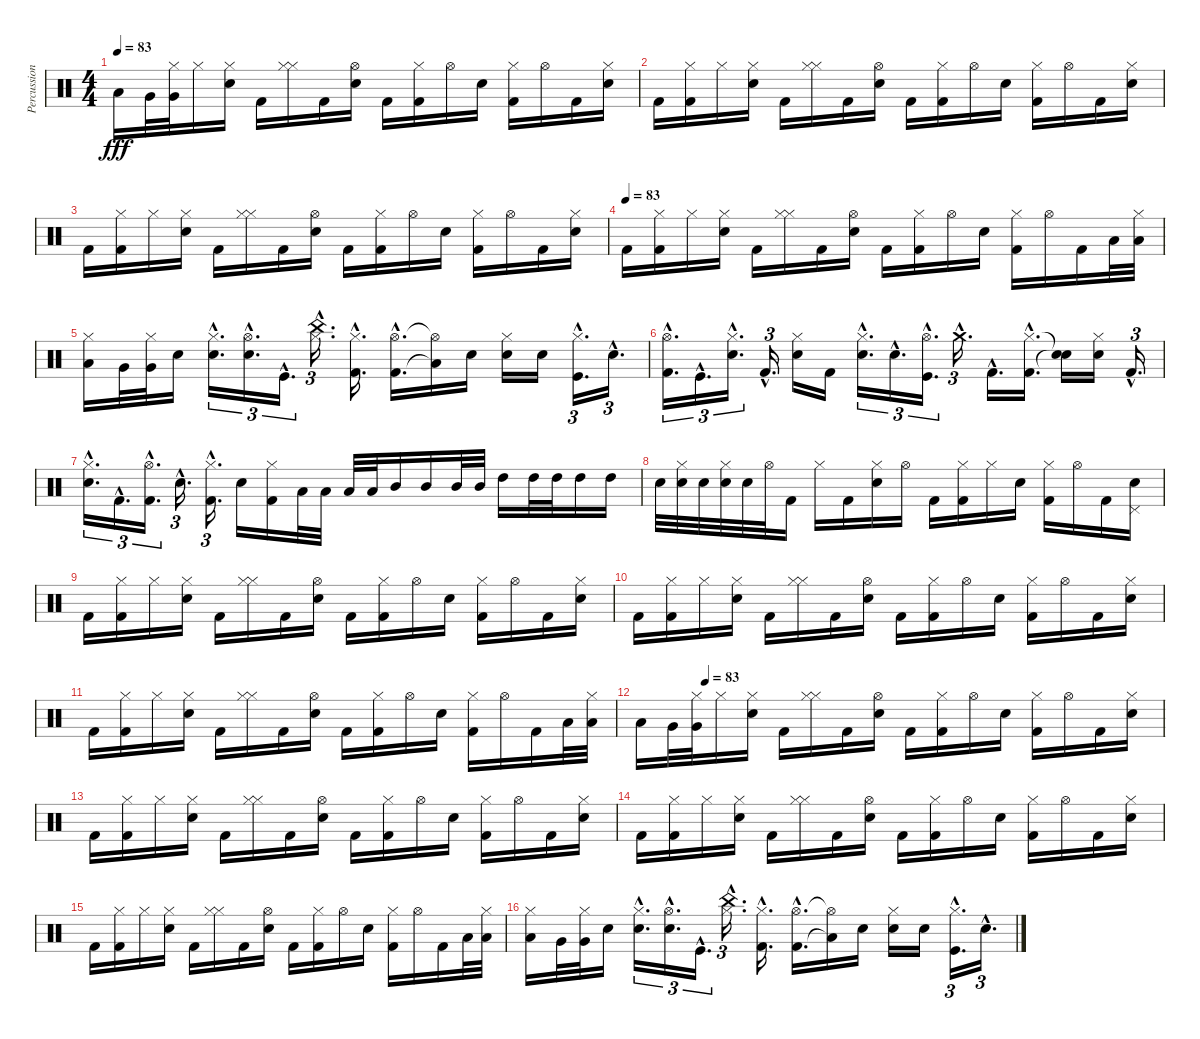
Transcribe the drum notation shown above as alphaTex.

\track ("Percussion" "Percussion") {instrument percussion}
\staff {score}
\articulation defaults
\ts (4 4)
\tempo 83
\clef neutral
\ks c "Low Floor Tom (hit)".16{dy fff} "Very Low Tom (hit)".32
("Hi-Hat (closed)" "Very Low Tom (hit)").32 "Hi-Hat (closed)".16 ("Hi-Hat (closed)" "Snare (hit) 2").16 "Kick (hit) 2".16 ("Hi-Hat (closed)" "Hi-Hat (closed)").16 "Kick (hit) 2".16 ("Hi-Hat (open)" "Snare (hit) 2").16 "Kick (hit) 2".16 ("Hi-Hat (closed)" "Kick (hit) 2").16 "Hi-Hat (open)".16 "Snare (hit) 2".16 ("Hi-Hat (closed)" "Kick (hit) 2").16 "Hi-Hat (open)".16 "Kick (hit) 2".16 ("Hi-Hat (closed)" "Snare (hit) 2").16 |
"Kick (hit) 2".16 ("Hi-Hat (closed)" "Kick (hit) 2").16 "Hi-Hat (closed)".16 ("Hi-Hat (closed)" "Snare (hit) 2").16 "Kick (hit) 2".16 ("Hi-Hat (closed)" "Hi-Hat (closed)").16 "Kick (hit) 2".16 ("Hi-Hat (open)" "Snare (hit) 2").16 "Kick (hit) 2".16 ("Hi-Hat (closed)" "Kick (hit) 2").16 "Hi-Hat (open)".16 "Snare (hit) 2".16 ("Hi-Hat (closed)" "Kick (hit) 2").16 "Hi-Hat (open)".16 "Kick (hit) 2".16 ("Hi-Hat (closed)" "Snare (hit) 2").16 |
"Kick (hit) 2".16 ("Hi-Hat (closed)" "Kick (hit) 2").16 "Hi-Hat (closed)".16 ("Hi-Hat (closed)" "Snare (hit) 2").16 "Kick (hit) 2".16 ("Hi-Hat (closed)" "Hi-Hat (closed)").16 "Kick (hit) 2".16 ("Hi-Hat (open)" "Snare (hit) 2").16 "Kick (hit) 2".16 ("Hi-Hat (closed)" "Kick (hit) 2").16 "Hi-Hat (open)".16 "Snare (hit) 2".16 ("Hi-Hat (closed)" "Kick (hit) 2").16 "Hi-Hat (open)".16 "Kick (hit) 2".16 ("Hi-Hat (closed)" "Snare (hit) 2").16 |
\tempo (83)
"Kick (hit) 2".16 ("Hi-Hat (closed)" "Kick (hit) 2").16 "Hi-Hat (closed)".16 ("Hi-Hat (closed)" "Snare (hit) 2").16 "Kick (hit) 2".16 ("Hi-Hat (closed)" "Hi-Hat (closed)").16 "Kick (hit) 2".16 ("Hi-Hat (open)" "Snare (hit) 2").16 "Kick (hit) 2".16 ("Hi-Hat (closed)" "Kick (hit) 2").16 "Hi-Hat (open)".16 "Snare (hit) 2".16 ("Hi-Hat (closed)" "Kick (hit) 2").16 "Hi-Hat (open)".16 "Kick (hit) 2".16 "Low Tom (hit)".32 ("Hi-Hat (closed)" "Low Tom (hit)").32 |
("Hi-Hat (closed)" "Low Floor Tom (hit)").16 "Very Low Tom (hit)".32 ("Hi-Hat (closed)" "Very Low Tom (hit)").32 "Snare (hit) 2".16 ("Hi-Hat (closed)"{hac} "Snare (hit) 2"{hac}).16{d tu (3 2)} ("Hi-Hat (open)"{hac} "Snare (hit) 2"{hac}).16{d tu (3 2)} "Kick (hit)"{hac}.16{d tu (3 2)} ("Hi-Hat (closed)"{hac} "China (hit)"{hac}).16{d tu (3 2)} ("Hi-Hat (closed)"{hac} "Kick (hit) 2"{hac}).16{d} ("Hi-Hat (open)"{hac} "Kick (hit) 2"{hac}).16{d} ("Hi-Hat (open)"{t} "Low Tom (hit)"{t}).16 "Snare (hit) 2".16 ("Hi-Hat (closed)" "Snare (hit) 2").16 "Snare (hit) 2".16 ("Hi-Hat (closed)"{hac} "Kick (hit)"{hac}).16{d tu (3 2)} "Snare (hit) 2"{hac}.16{d tu (3 2)} |
("Hi-Hat (open)"{hac} "Kick (hit) 2"{hac}).16{d tu (3 2)} "Kick (hit)"{hac}.16{d tu (3 2)} ("Hi-Hat (closed)"{hac} "Snare (hit) 2"{hac}).16{d tu (3 2)} "Kick (hit) 2"{hac}.16{d tu (3 2)} ("Hi-Hat (closed)" "Snare (hit) 2").16 "Kick (hit) 2".16 ("Hi-Hat (closed)"{hac} "Snare (hit) 2"{hac}).16{d tu (3 2)} "Snare (hit) 2"{hac}.16{d tu (3 2)} ("Hi-Hat (open)"{hac} "Kick (hit)"{hac}).16{d tu (3 2)} "Crash medium (hit)"{hac}.16{d tu (3 2)} "Kick (hit) 2"{hac}.16{d} ("Hi-Hat (closed)"{hac} "Kick (hit) 2"{hac}).16{d} ("Snare (hit)"{t} "Snare (hit)"{t}).16 ("Hi-Hat (closed)" "Snare (hit) 2").16 "Kick (hit) 2"{hac}.16{d tu (3 2)} |
("Hi-Hat (closed)"{hac} "Snare (hit) 2"{hac}).16{d tu (3 2)} "Kick (hit) 2"{hac}.16{d tu (3 2)} ("Hi-Hat (open)"{hac} "Kick (hit) 2"{hac}).16{d tu (3 2)} "Snare (hit) 2"{hac}.16{d tu (3 2)} ("Hi-Hat (closed)"{hac} "Kick (hit) 2"{hac}).16{d tu (3 2)} "Snare (hit) 2".16 ("Hi-Hat (closed)" "Kick (hit) 2").16 "Low Tom (hit)".32 "Low Tom (hit)".32 "Low Tom (hit)".32 "Low Tom (hit)".32 "Mid Tom (hit)".16 "Mid Tom (hit)".16 "Mid Tom (hit)".32 "Mid Tom (hit)".32 "High Tom (hit)".16 "High Tom (hit)".32 "High Tom (hit)".32 "High Tom (hit)".16 "High Tom (hit)".16 |
"Snare (hit) 2".32 ("Hi-Hat (closed)" "Snare (hit) 2").32 "Snare (hit) 2".32 ("Hi-Hat (closed)" "Snare (hit) 2").32 "Snare (hit) 2".32 "Hi-Hat (open)".32 "Kick (hit) 2".16 "Hi-Hat (closed)".16 "Kick (hit) 2".16 ("Hi-Hat (closed)" "Snare (hit) 2").16 "Hi-Hat (open)".16 "Kick (hit) 2".16 ("Hi-Hat (closed)" "Kick (hit) 2").16 "Hi-Hat (closed)".16 "Snare (hit) 2".16 ("Hi-Hat (closed)" "Kick (hit) 2").16 "Hi-Hat (open)".16 "Kick (hit) 2".16 ("Pedal Hi-Hat (hit)" "Snare (hit) 2").16 |
"Kick (hit) 2".16 ("Hi-Hat (closed)" "Kick (hit) 2").16 "Hi-Hat (closed)".16 ("Hi-Hat (closed)" "Snare (hit) 2").16 "Kick (hit) 2".16 ("Hi-Hat (closed)" "Hi-Hat (closed)").16 "Kick (hit) 2".16 ("Hi-Hat (open)" "Snare (hit) 2").16 "Kick (hit) 2".16 ("Hi-Hat (closed)" "Kick (hit) 2").16 "Hi-Hat (open)".16 "Snare (hit) 2".16 ("Hi-Hat (closed)" "Kick (hit) 2").16 "Hi-Hat (open)".16 "Kick (hit) 2".16 ("Hi-Hat (closed)" "Snare (hit) 2").16 |
"Kick (hit) 2".16 ("Hi-Hat (closed)" "Kick (hit) 2").16 "Hi-Hat (closed)".16 ("Hi-Hat (closed)" "Snare (hit) 2").16 "Kick (hit) 2".16 ("Hi-Hat (closed)" "Hi-Hat (closed)").16 "Kick (hit) 2".16 ("Hi-Hat (open)" "Snare (hit) 2").16 "Kick (hit) 2".16 ("Hi-Hat (closed)" "Kick (hit) 2").16 "Hi-Hat (open)".16 "Snare (hit) 2".16 ("Hi-Hat (closed)" "Kick (hit) 2").16 "Hi-Hat (open)".16 "Kick (hit) 2".16 ("Hi-Hat (closed)" "Snare (hit) 2").16 |
"Kick (hit) 2".16 ("Hi-Hat (closed)" "Kick (hit) 2").16 "Hi-Hat (closed)".16 ("Hi-Hat (closed)" "Snare (hit) 2").16 "Kick (hit) 2".16 ("Hi-Hat (closed)" "Hi-Hat (closed)").16 "Kick (hit) 2".16 ("Hi-Hat (open)" "Snare (hit) 2").16 "Kick (hit) 2".16 ("Hi-Hat (closed)" "Kick (hit) 2").16 "Hi-Hat (open)".16 "Snare (hit) 2".16 ("Hi-Hat (closed)" "Kick (hit) 2").16 "Hi-Hat (open)".16 "Kick (hit) 2".16 "Low Tom (hit)".32 ("Hi-Hat (closed)" "Low Tom (hit)").32 |
\tempo (83 0.125)
"Low Floor Tom (hit)".16 "Very Low Tom (hit)".32 ("Hi-Hat (closed)" "Very Low Tom (hit)").32 "Hi-Hat (closed)".16 ("Hi-Hat (closed)" "Snare (hit) 2").16 "Kick (hit) 2".16 ("Hi-Hat (closed)" "Hi-Hat (closed)").16 "Kick (hit) 2".16 ("Hi-Hat (open)" "Snare (hit) 2").16 "Kick (hit) 2".16 ("Hi-Hat (closed)" "Kick (hit) 2").16 "Hi-Hat (open)".16 "Snare (hit) 2".16 ("Hi-Hat (closed)" "Kick (hit) 2").16 "Hi-Hat (open)".16 "Kick (hit) 2".16 ("Hi-Hat (closed)" "Snare (hit) 2").16 |
"Kick (hit) 2".16 ("Hi-Hat (closed)" "Kick (hit) 2").16 "Hi-Hat (closed)".16 ("Hi-Hat (closed)" "Snare (hit) 2").16 "Kick (hit) 2".16 ("Hi-Hat (closed)" "Hi-Hat (closed)").16 "Kick (hit) 2".16 ("Hi-Hat (open)" "Snare (hit) 2").16 "Kick (hit) 2".16 ("Hi-Hat (closed)" "Kick (hit) 2").16 "Hi-Hat (open)".16 "Snare (hit) 2".16 ("Hi-Hat (closed)" "Kick (hit) 2").16 "Hi-Hat (open)".16 "Kick (hit) 2".16 ("Hi-Hat (closed)" "Snare (hit) 2").16 |
"Kick (hit) 2".16 ("Hi-Hat (closed)" "Kick (hit) 2").16 "Hi-Hat (closed)".16 ("Hi-Hat (closed)" "Snare (hit) 2").16 "Kick (hit) 2".16 ("Hi-Hat (closed)" "Hi-Hat (closed)").16 "Kick (hit) 2".16 ("Hi-Hat (open)" "Snare (hit) 2").16 "Kick (hit) 2".16 ("Hi-Hat (closed)" "Kick (hit) 2").16 "Hi-Hat (open)".16 "Snare (hit) 2".16 ("Hi-Hat (closed)" "Kick (hit) 2").16 "Hi-Hat (open)".16 "Kick (hit) 2".16 ("Hi-Hat (closed)" "Snare (hit) 2").16 |
"Kick (hit) 2".16 ("Hi-Hat (closed)" "Kick (hit) 2").16 "Hi-Hat (closed)".16 ("Hi-Hat (closed)" "Snare (hit) 2").16 "Kick (hit) 2".16 ("Hi-Hat (closed)" "Hi-Hat (closed)").16 "Kick (hit) 2".16 ("Hi-Hat (open)" "Snare (hit) 2").16 "Kick (hit) 2".16 ("Hi-Hat (closed)" "Kick (hit) 2").16 "Hi-Hat (open)".16 "Snare (hit) 2".16 ("Hi-Hat (closed)" "Kick (hit) 2").16 "Hi-Hat (open)".16 "Kick (hit) 2".16 "Low Tom (hit)".32 ("Hi-Hat (closed)" "Low Tom (hit)").32 |
("Hi-Hat (closed)" "Low Floor Tom (hit)").16 "Very Low Tom (hit)".32 ("Hi-Hat (closed)" "Very Low Tom (hit)").32 "Snare (hit) 2".16 ("Hi-Hat (closed)"{hac} "Snare (hit) 2"{hac}).16{d tu (3 2)} ("Hi-Hat (open)"{hac} "Snare (hit) 2"{hac}).16{d tu (3 2)} "Kick (hit)"{hac}.16{d tu (3 2)} ("Hi-Hat (closed)"{hac} "China (hit)"{hac}).16{d tu (3 2)} ("Hi-Hat (closed)"{hac} "Kick (hit) 2"{hac}).16{d} ("Hi-Hat (open)"{hac} "Kick (hit) 2"{hac}).16{d} ("Hi-Hat (open)"{t} "Low Tom (hit)"{t}).16 "Snare (hit) 2".16 ("Hi-Hat (closed)" "Snare (hit) 2").16 "Snare (hit) 2".16 ("Hi-Hat (closed)"{hac} "Kick (hit)"{hac}).16{d tu (3 2)} "Snare (hit) 2"{hac}.16{d tu (3 2)}
